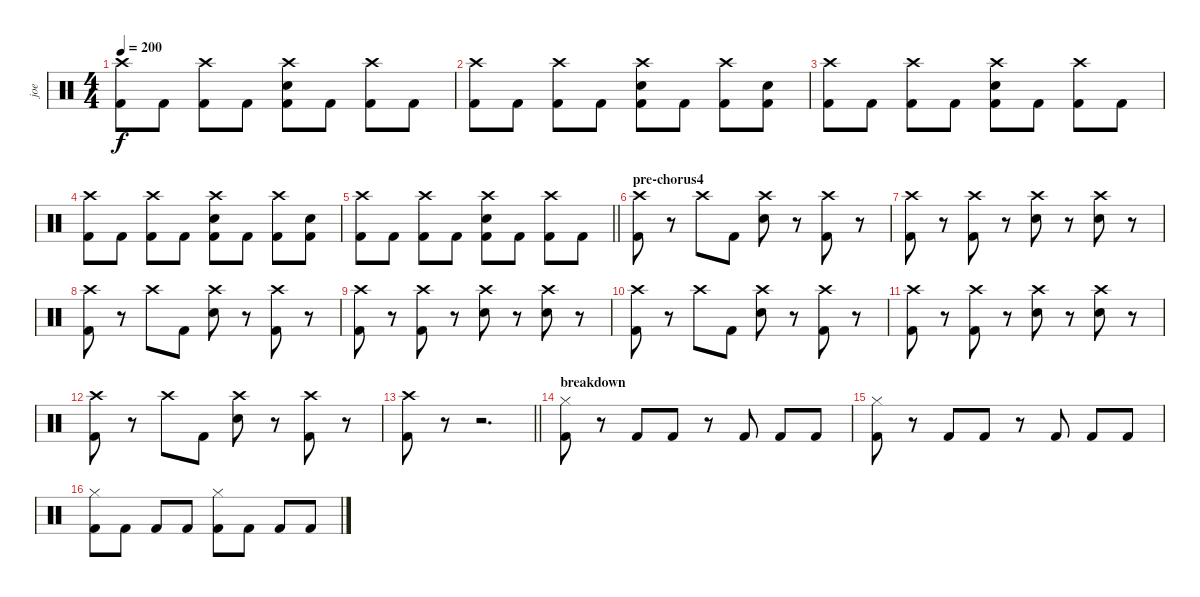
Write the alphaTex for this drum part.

\track ("joe" "joe") {instrument percussion}
\staff {score}
\articulation defaults
\ts (4 4)
\tempo 200
\clef neutral
\ks c
("Crash high (hit)" "Kick (hit) 2").8{dy f} "Kick (hit) 2".8 ("Crash high (hit)" "Kick (hit) 2").8 "Kick (hit) 2".8 ("Crash high (hit)" "Snare (hit) 2" "Kick (hit) 2").8 "Kick (hit) 2".8 ("Crash high (hit)" "Kick (hit) 2").8 "Kick (hit) 2".8 |
("Crash high (hit)" "Kick (hit) 2").8 "Kick (hit) 2".8 ("Crash high (hit)" "Kick (hit) 2").8 "Kick (hit) 2".8 ("Crash high (hit)" "Snare (hit) 2" "Kick (hit) 2").8 "Kick (hit) 2".8 ("Crash high (hit)" "Kick (hit) 2").8 ("Snare (hit) 2" "Kick (hit) 2").8 |
("Crash high (hit)" "Kick (hit) 2").8 "Kick (hit) 2".8 ("Crash high (hit)" "Kick (hit) 2").8 "Kick (hit) 2".8 ("Crash high (hit)" "Snare (hit) 2" "Kick (hit) 2").8 "Kick (hit) 2".8 ("Crash high (hit)" "Kick (hit) 2").8 "Kick (hit) 2".8 |
("Crash high (hit)" "Kick (hit) 2").8 "Kick (hit) 2".8 ("Crash high (hit)" "Kick (hit) 2").8 "Kick (hit) 2".8 ("Crash high (hit)" "Snare (hit) 2" "Kick (hit) 2").8 "Kick (hit) 2".8 ("Crash high (hit)" "Kick (hit) 2").8 ("Snare (hit) 2" "Kick (hit) 2").8 |
\barLineRight lightlight
("Crash high (hit)" "Kick (hit) 2").8 "Kick (hit) 2".8 ("Crash high (hit)" "Kick (hit) 2").8 "Kick (hit) 2".8 ("Crash high (hit)" "Snare (hit) 2" "Kick (hit) 2").8 "Kick (hit) 2".8 ("Crash high (hit)" "Kick (hit) 2").8 "Kick (hit) 2".8 |
\section ("" "pre-chorus4")
("Crash high (hit)" "Kick (hit) 2").8 r.8 "Crash high (hit)".8 "Kick (hit) 2".8 ("Crash high (hit)" "Snare (hit) 2").8 r.8 ("Crash high (hit)" "Kick (hit) 2").8 r.8 |
("Crash high (hit)" "Kick (hit) 2").8 r.8 ("Crash high (hit)" "Kick (hit) 2").8 r.8 ("Crash high (hit)" "Snare (hit) 2").8 r.8 ("Crash high (hit)" "Snare (hit) 2").8 r.8 |
("Crash high (hit)" "Kick (hit) 2").8 r.8 "Crash high (hit)".8 "Kick (hit) 2".8 ("Crash high (hit)" "Snare (hit) 2").8 r.8 ("Crash high (hit)" "Kick (hit) 2").8 r.8 |
("Crash high (hit)" "Kick (hit) 2").8 r.8 ("Crash high (hit)" "Kick (hit) 2").8 r.8 ("Crash high (hit)" "Snare (hit) 2").8 r.8 ("Crash high (hit)" "Snare (hit) 2").8 r.8 |
("Crash high (hit)" "Kick (hit) 2").8 r.8 "Crash high (hit)".8 "Kick (hit) 2".8 ("Crash high (hit)" "Snare (hit) 2").8 r.8 ("Crash high (hit)" "Kick (hit) 2").8 r.8 |
("Crash high (hit)" "Kick (hit) 2").8 r.8 ("Crash high (hit)" "Kick (hit) 2").8 r.8 ("Crash high (hit)" "Snare (hit) 2").8 r.8 ("Crash high (hit)" "Snare (hit) 2").8 r.8 |
("Crash high (hit)" "Kick (hit) 2").8 r.8 "Crash high (hit)".8 "Kick (hit) 2".8 ("Crash high (hit)" "Snare (hit) 2").8 r.8 ("Crash high (hit)" "Kick (hit) 2").8 r.8 |
\barLineRight lightlight
("Crash high (hit)" "Kick (hit) 2").8 r.8 r.2{d} |
\section ("" "breakdown")
("Hi-Hat (closed)" "Kick (hit) 2").8 r.8 "Kick (hit) 2".8 "Kick (hit) 2".8 r.8 "Kick (hit) 2".8 "Kick (hit) 2".8 "Kick (hit) 2".8 |
("Hi-Hat (closed)" "Kick (hit) 2").8 r.8 "Kick (hit) 2".8 "Kick (hit) 2".8 r.8 "Kick (hit) 2".8 "Kick (hit) 2".8 "Kick (hit) 2".8 |
("Hi-Hat (closed)" "Kick (hit) 2").8 "Kick (hit) 2".8 "Kick (hit) 2".8 "Kick (hit) 2".8 ("Hi-Hat (closed)" "Kick (hit) 2").8 "Kick (hit) 2".8 "Kick (hit) 2".8 "Kick (hit) 2".8
